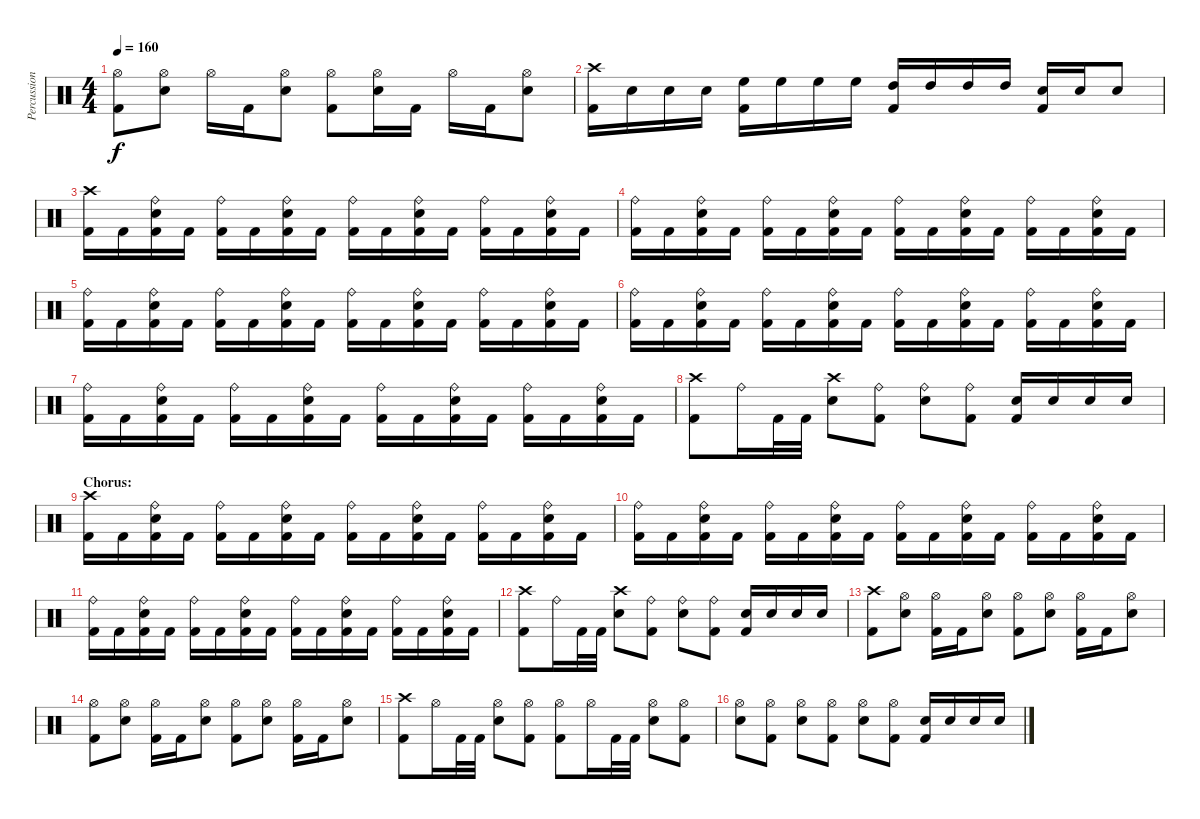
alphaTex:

\track ("Percussion" "Percussion") {instrument percussion}
\staff {score}
\articulation defaults
\ts (4 4)
\tempo 160
\clef neutral
\ks c
("Hi-Hat (open)" "Kick (hit) 2").8{dy f} ("Hi-Hat (open)" "Electric Snare (hit)").8 "Hi-Hat (open)".16 "Kick (hit) 2".16 ("Hi-Hat (open)" "Electric Snare (hit)").8 ("Hi-Hat (open)" "Kick (hit) 2").8 ("Hi-Hat (open)" "Electric Snare (hit)").16 "Kick (hit) 2".16 "Hi-Hat (open)".16 "Kick (hit) 2".16 ("Hi-Hat (open)" "Electric Snare (hit)").8 |
("Crash high (hit)" "Kick (hit) 2").16 "Electric Snare (hit)".16 "Electric Snare (hit)".16 "Electric Snare (hit)".16 ("High Floor Tom (hit)" "Kick (hit) 2").16 "High Floor Tom (hit)".16 "High Floor Tom (hit)".16 "High Floor Tom (hit)".16 ("High Tom (hit)" "Kick (hit) 2").16 "High Tom (hit)".16 "High Tom (hit)".16 "High Tom (hit)".16 ("Electric Snare (hit)" "Kick (hit) 2").16 "Electric Snare (hit)".16 "Electric Snare (hit)".8 |
("Crash high (hit)" "Kick (hit) 2").16 "Kick (hit) 2".16 ("Ride (bell)" "Electric Snare (hit)" "Kick (hit) 2").16 "Kick (hit) 2".16 ("Ride (bell)" "Kick (hit) 2").16 "Kick (hit) 2".16 ("Ride (bell)" "Electric Snare (hit)" "Kick (hit) 2").16 "Kick (hit) 2".16 ("Ride (bell)" "Kick (hit) 2").16 "Kick (hit) 2".16 ("Ride (bell)" "Electric Snare (hit)" "Kick (hit) 2").16 "Kick (hit) 2".16 ("Ride (bell)" "Kick (hit) 2").16 "Kick (hit) 2".16 ("Ride (bell)" "Electric Snare (hit)" "Kick (hit) 2").16 "Kick (hit) 2".16 |
("Ride (bell)" "Kick (hit) 2").16 "Kick (hit) 2".16 ("Ride (bell)" "Electric Snare (hit)" "Kick (hit) 2").16 "Kick (hit) 2".16 ("Ride (bell)" "Kick (hit) 2").16 "Kick (hit) 2".16 ("Ride (bell)" "Electric Snare (hit)" "Kick (hit) 2").16 "Kick (hit) 2".16 ("Ride (bell)" "Kick (hit) 2").16 "Kick (hit) 2".16 ("Ride (bell)" "Electric Snare (hit)" "Kick (hit) 2").16 "Kick (hit) 2".16 ("Ride (bell)" "Kick (hit) 2").16 "Kick (hit) 2".16 ("Ride (bell)" "Electric Snare (hit)" "Kick (hit) 2").16 "Kick (hit) 2".16 |
("Ride (bell)" "Kick (hit) 2").16 "Kick (hit) 2".16 ("Ride (bell)" "Electric Snare (hit)" "Kick (hit) 2").16 "Kick (hit) 2".16 ("Ride (bell)" "Kick (hit) 2").16 "Kick (hit) 2".16 ("Ride (bell)" "Electric Snare (hit)" "Kick (hit) 2").16 "Kick (hit) 2".16 ("Ride (bell)" "Kick (hit) 2").16 "Kick (hit) 2".16 ("Ride (bell)" "Electric Snare (hit)" "Kick (hit) 2").16 "Kick (hit) 2".16 ("Ride (bell)" "Kick (hit) 2").16 "Kick (hit) 2".16 ("Ride (bell)" "Electric Snare (hit)" "Kick (hit) 2").16 "Kick (hit) 2".16 |
("Ride (bell)" "Kick (hit) 2").16 "Kick (hit) 2".16 ("Ride (bell)" "Electric Snare (hit)" "Kick (hit) 2").16 "Kick (hit) 2".16 ("Ride (bell)" "Kick (hit) 2").16 "Kick (hit) 2".16 ("Ride (bell)" "Electric Snare (hit)" "Kick (hit) 2").16 "Kick (hit) 2".16 ("Ride (bell)" "Kick (hit) 2").16 "Kick (hit) 2".16 ("Ride (bell)" "Electric Snare (hit)" "Kick (hit) 2").16 "Kick (hit) 2".16 ("Ride (bell)" "Kick (hit) 2").16 "Kick (hit) 2".16 ("Ride (bell)" "Electric Snare (hit)" "Kick (hit) 2").16 "Kick (hit) 2".16 |
("Ride (bell)" "Kick (hit) 2").16 "Kick (hit) 2".16 ("Ride (bell)" "Electric Snare (hit)" "Kick (hit) 2").16 "Kick (hit) 2".16 ("Ride (bell)" "Kick (hit) 2").16 "Kick (hit) 2".16 ("Ride (bell)" "Electric Snare (hit)" "Kick (hit) 2").16 "Kick (hit) 2".16 ("Ride (bell)" "Kick (hit) 2").16 "Kick (hit) 2".16 ("Ride (bell)" "Electric Snare (hit)" "Kick (hit) 2").16 "Kick (hit) 2".16 ("Ride (bell)" "Kick (hit) 2").16 "Kick (hit) 2".16 ("Ride (bell)" "Electric Snare (hit)" "Kick (hit) 2").16 "Kick (hit) 2".16 |
("Crash high (hit)" "Kick (hit) 2").8 "Ride (bell)".16 "Kick (hit) 2".32 "Kick (hit) 2".32 ("Crash high (hit)" "Electric Snare (hit)").8 ("Ride (bell)" "Kick (hit) 2").8 ("Ride (bell)" "Electric Snare (hit)").8 ("Ride (bell)" "Kick (hit) 2").8 ("Electric Snare (hit)" "Kick (hit) 2").16 "Electric Snare (hit)".16 "Electric Snare (hit)".16 "Electric Snare (hit)".16 |
\section ("" "Chorus:")
("Crash high (hit)" "Kick (hit) 2").16 "Kick (hit) 2".16 ("Ride (bell)" "Electric Snare (hit)" "Kick (hit) 2").16 "Kick (hit) 2".16 ("Ride (bell)" "Kick (hit) 2").16 "Kick (hit) 2".16 ("Ride (bell)" "Electric Snare (hit)" "Kick (hit) 2").16 "Kick (hit) 2".16 ("Ride (bell)" "Kick (hit) 2").16 "Kick (hit) 2".16 ("Ride (bell)" "Electric Snare (hit)" "Kick (hit) 2").16 "Kick (hit) 2".16 ("Ride (bell)" "Kick (hit) 2").16 "Kick (hit) 2".16 ("Ride (bell)" "Electric Snare (hit)" "Kick (hit) 2").16 "Kick (hit) 2".16 |
("Ride (bell)" "Kick (hit) 2").16 "Kick (hit) 2".16 ("Ride (bell)" "Electric Snare (hit)" "Kick (hit) 2").16 "Kick (hit) 2".16 ("Ride (bell)" "Kick (hit) 2").16 "Kick (hit) 2".16 ("Ride (bell)" "Electric Snare (hit)" "Kick (hit) 2").16 "Kick (hit) 2".16 ("Ride (bell)" "Kick (hit) 2").16 "Kick (hit) 2".16 ("Ride (bell)" "Electric Snare (hit)" "Kick (hit) 2").16 "Kick (hit) 2".16 ("Ride (bell)" "Kick (hit) 2").16 "Kick (hit) 2".16 ("Ride (bell)" "Electric Snare (hit)" "Kick (hit) 2").16 "Kick (hit) 2".16 |
("Ride (bell)" "Kick (hit) 2").16 "Kick (hit) 2".16 ("Ride (bell)" "Electric Snare (hit)" "Kick (hit) 2").16 "Kick (hit) 2".16 ("Ride (bell)" "Kick (hit) 2").16 "Kick (hit) 2".16 ("Ride (bell)" "Electric Snare (hit)" "Kick (hit) 2").16 "Kick (hit) 2".16 ("Ride (bell)" "Kick (hit) 2").16 "Kick (hit) 2".16 ("Ride (bell)" "Electric Snare (hit)" "Kick (hit) 2").16 "Kick (hit) 2".16 ("Ride (bell)" "Kick (hit) 2").16 "Kick (hit) 2".16 ("Ride (bell)" "Electric Snare (hit)" "Kick (hit) 2").16 "Kick (hit) 2".16 |
("Crash high (hit)" "Kick (hit) 2").8 "Ride (bell)".16 "Kick (hit) 2".32 "Kick (hit) 2".32 ("Crash high (hit)" "Electric Snare (hit)").8 ("Ride (bell)" "Kick (hit) 2").8 ("Ride (bell)" "Electric Snare (hit)").8 ("Ride (bell)" "Kick (hit) 2").8 ("Electric Snare (hit)" "Kick (hit) 2").16 "Electric Snare (hit)".16 "Electric Snare (hit)".16 "Electric Snare (hit)".16 |
("Crash high (hit)" "Kick (hit) 2").8 ("Hi-Hat (open)" "Electric Snare (hit)").8 ("Hi-Hat (open)" "Kick (hit) 2").16 "Kick (hit) 2".16 ("Hi-Hat (open)" "Electric Snare (hit)").8 ("Hi-Hat (open)" "Kick (hit) 2").8 ("Hi-Hat (open)" "Electric Snare (hit)").8 ("Hi-Hat (open)" "Kick (hit) 2").16 "Kick (hit) 2".16 ("Hi-Hat (open)" "Electric Snare (hit)").8 |
("Hi-Hat (open)" "Kick (hit) 2").8 ("Hi-Hat (open)" "Electric Snare (hit)").8 ("Hi-Hat (open)" "Kick (hit) 2").16 "Kick (hit) 2".16 ("Hi-Hat (open)" "Electric Snare (hit)").8 ("Hi-Hat (open)" "Kick (hit) 2").8 ("Hi-Hat (open)" "Electric Snare (hit)").8 ("Hi-Hat (open)" "Kick (hit) 2").16 "Kick (hit) 2".16 ("Hi-Hat (open)" "Electric Snare (hit)").8 |
("Crash high (hit)" "Kick (hit) 2").8 "Hi-Hat (open)".16 "Kick (hit) 2".32 "Kick (hit) 2".32 ("Hi-Hat (open)" "Electric Snare (hit)").8 ("Hi-Hat (open)" "Kick (hit) 2").8 ("Hi-Hat (open)" "Kick (hit) 2").8 "Hi-Hat (open)".16 "Kick (hit) 2".32 "Kick (hit) 2".32 ("Hi-Hat (open)" "Electric Snare (hit)").8 ("Hi-Hat (open)" "Kick (hit) 2").8 |
("Hi-Hat (open)" "Electric Snare (hit)").8 ("Hi-Hat (open)" "Kick (hit) 2").8 ("Hi-Hat (open)" "Electric Snare (hit)").8 ("Hi-Hat (open)" "Kick (hit) 2").8 ("Hi-Hat (open)" "Electric Snare (hit)").8 ("Hi-Hat (open)" "Kick (hit) 2").8 ("Electric Snare (hit)" "Kick (hit) 2").16 "Electric Snare (hit)".16 "Electric Snare (hit)".16 "Electric Snare (hit)".16
